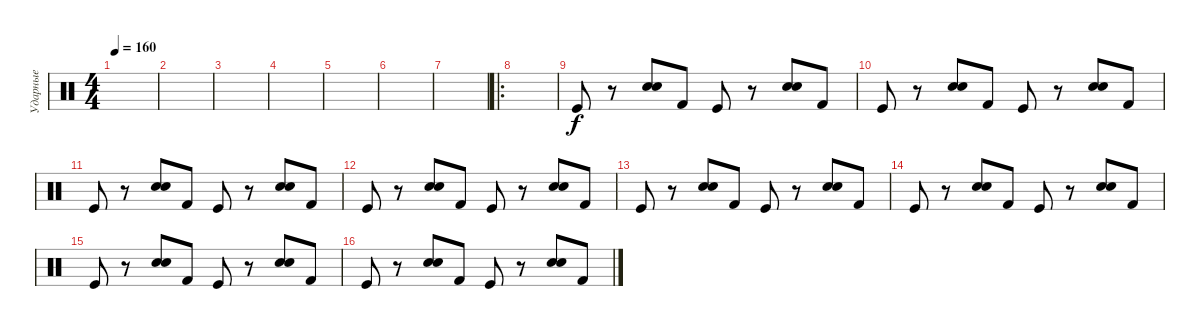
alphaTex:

\track ("Ударные" "Ударные") {instrument percussion}
\staff {score}
\articulation defaults
\ts (4 4)
\tempo 160
\clef neutral
\ks c
|
|
|
|
|
|
|
\ro
|
"Kick (hit)".8 r.8 ("Electric Snare (hit)" "Snare (hit) 2").8 "Kick (hit) 2".8 "Kick (hit)".8 r.8 ("Electric Snare (hit)" "Snare (hit) 2").8 "Kick (hit) 2".8 |
"Kick (hit)".8 r.8 ("Electric Snare (hit)" "Snare (hit) 2").8 "Kick (hit) 2".8 "Kick (hit)".8 r.8 ("Electric Snare (hit)" "Snare (hit) 2").8 "Kick (hit) 2".8 |
"Kick (hit)".8 r.8 ("Electric Snare (hit)" "Snare (hit) 2").8 "Kick (hit) 2".8 "Kick (hit)".8 r.8 ("Electric Snare (hit)" "Snare (hit) 2").8 "Kick (hit) 2".8 |
"Kick (hit)".8 r.8 ("Electric Snare (hit)" "Snare (hit) 2").8 "Kick (hit) 2".8 "Kick (hit)".8 r.8 ("Electric Snare (hit)" "Snare (hit) 2").8 "Kick (hit) 2".8 |
"Kick (hit)".8 r.8 ("Electric Snare (hit)" "Snare (hit) 2").8 "Kick (hit) 2".8 "Kick (hit)".8 r.8 ("Electric Snare (hit)" "Snare (hit) 2").8 "Kick (hit) 2".8 |
"Kick (hit)".8 r.8 ("Electric Snare (hit)" "Snare (hit) 2").8 "Kick (hit) 2".8 "Kick (hit)".8 r.8 ("Electric Snare (hit)" "Snare (hit) 2").8 "Kick (hit) 2".8 |
"Kick (hit)".8 r.8 ("Electric Snare (hit)" "Snare (hit) 2").8 "Kick (hit) 2".8 "Kick (hit)".8 r.8 ("Electric Snare (hit)" "Snare (hit) 2").8 "Kick (hit) 2".8 |
"Kick (hit)".8 r.8 ("Electric Snare (hit)" "Snare (hit) 2").8 "Kick (hit) 2".8 "Kick (hit)".8 r.8 ("Electric Snare (hit)" "Snare (hit) 2").8 "Kick (hit) 2".8
